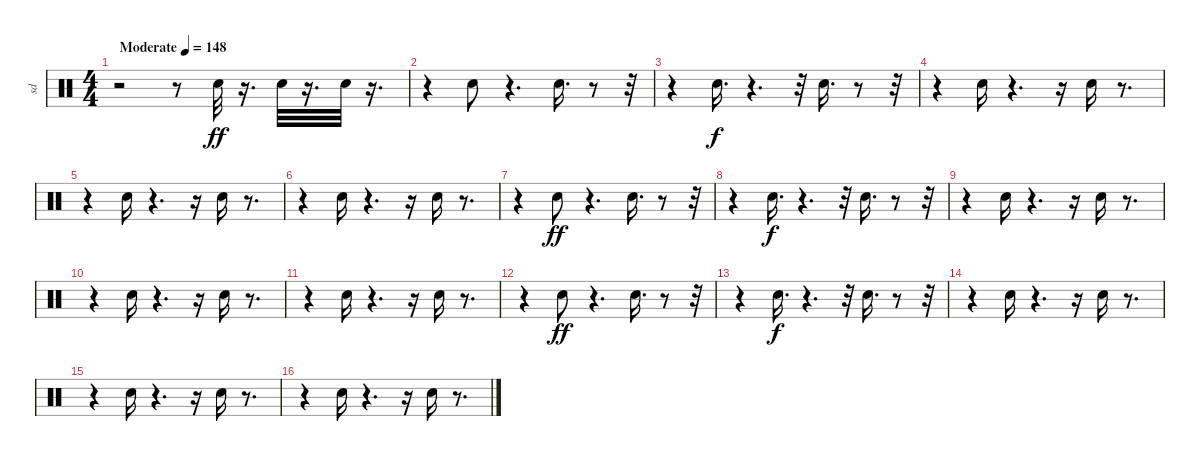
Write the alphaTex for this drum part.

\track ("sd                  " "sd        ") {instrument percussion}
\staff {score}
\articulation defaults
\ts (4 4)
\tempo (148 "Moderate")
\clef neutral
\ks c
r.2{dy ff} r.8 "Snare (hit) 2".32 r.16{d} "Snare (hit) 2".32 r.16{d} "Snare (hit) 2".32 r.16{d} |
r.4 "Snare (hit) 2".8 r.4{d} "Snare (hit) 2".16{d} r.8 r.32 |
r.4 "Snare (hit) 2".16{d dy f} r.4{d} r.32 "Snare (hit) 2".16{d} r.8 r.32 |
r.4 "Snare (hit) 2".16 r.4{d} r.16 "Snare (hit) 2".16 r.8{d} |
r.4 "Snare (hit) 2".16 r.4{d} r.16 "Snare (hit) 2".16 r.8{d} |
r.4 "Snare (hit) 2".16 r.4{d} r.16 "Snare (hit) 2".16 r.8{d} |
r.4 "Snare (hit) 2".8{dy ff} r.4{d} "Snare (hit) 2".16{d} r.8 r.32 |
r.4 "Snare (hit) 2".16{d dy f} r.4{d} r.32 "Snare (hit) 2".16{d} r.8 r.32 |
r.4 "Snare (hit) 2".16 r.4{d} r.16 "Snare (hit) 2".16 r.8{d} |
r.4 "Snare (hit) 2".16 r.4{d} r.16 "Snare (hit) 2".16 r.8{d} |
r.4 "Snare (hit) 2".16 r.4{d} r.16 "Snare (hit) 2".16 r.8{d} |
r.4 "Snare (hit) 2".8{dy ff} r.4{d} "Snare (hit) 2".16{d} r.8 r.32 |
r.4 "Snare (hit) 2".16{d dy f} r.4{d} r.32 "Snare (hit) 2".16{d} r.8 r.32 |
r.4 "Snare (hit) 2".16 r.4{d} r.16 "Snare (hit) 2".16 r.8{d} |
r.4 "Snare (hit) 2".16 r.4{d} r.16 "Snare (hit) 2".16 r.8{d} |
r.4 "Snare (hit) 2".16 r.4{d} r.16 "Snare (hit) 2".16 r.8{d}
